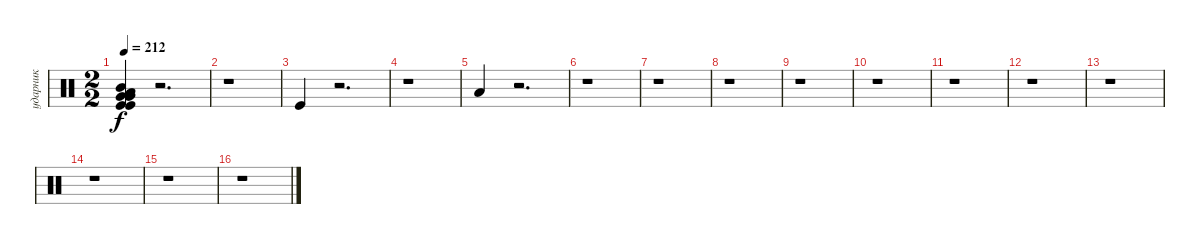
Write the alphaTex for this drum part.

\track ("ударник" "ударник") {instrument percussion}
\staff {score}
\articulation defaults
\ts (2 2)
\tempo 212
\clef neutral
\ks c
("Kick (hit)" "Low Floor Tom (hit)" "Mid Tom (hit)" "Kick (hit)" "Very Low Tom (hit)" "Very Low Tom (hit)").4{dy f} r.2{d} |
r.1 |
"Kick (hit)".4 r.2{d} |
r.1 |
"Low Floor Tom (hit)".4 r.2{d} |
r.1 |
r.1 |
r.1 |
r.1 |
r.1 |
r.1 |
r.1 |
r.1 |
r.1 |
r.1 |
r.1
